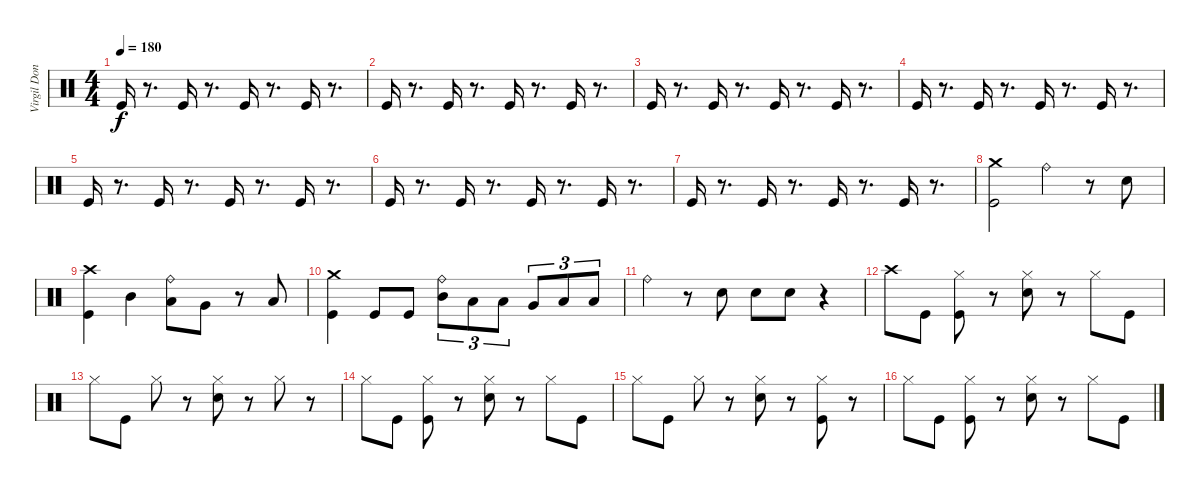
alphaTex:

\track ("Virgil Donati" "Virgil Don") {instrument percussion}
\staff {score}
\articulation defaults
\ts (4 4)
\tempo 180
\clef neutral
\ks c "Kick (hit)".16{dy f}
r.8{d} "Kick (hit)".16 r.8{d} "Kick (hit)".16 r.8{d} "Kick (hit)".16 r.8{d} |
"Kick (hit)".16 r.8{d} "Kick (hit)".16 r.8{d} "Kick (hit)".16 r.8{d} "Kick (hit)".16 r.8{d} |
"Kick (hit)".16 r.8{d} "Kick (hit)".16 r.8{d} "Kick (hit)".16 r.8{d} "Kick (hit)".16 r.8{d} |
"Kick (hit)".16 r.8{d} "Kick (hit)".16 r.8{d} "Kick (hit)".16 r.8{d} "Kick (hit)".16 r.8{d} |
"Kick (hit)".16 r.8{d} "Kick (hit)".16 r.8{d} "Kick (hit)".16 r.8{d} "Kick (hit)".16 r.8{d} |
"Kick (hit)".16 r.8{d} "Kick (hit)".16 r.8{d} "Kick (hit)".16 r.8{d} "Kick (hit)".16 r.8{d} |
"Kick (hit)".16 r.8{d} "Kick (hit)".16 r.8{d} "Kick (hit)".16 r.8{d} "Kick (hit)".16 r.8{d} |
("Crash medium (hit)" "Kick (hit)").2 "Ride (bell)".4 r.8 "Electric Snare (hit)".8 |
("Crash high (hit)" "Kick (hit)").4 "Mid Tom (hit)".4 ("Ride (bell)" "Low Tom (hit)").8 "Very Low Tom (hit)".8 r.8 "Low Floor Tom (hit)".8 |
("Crash medium (hit)" "Kick (hit)").4 "Kick (hit)".8 "Kick (hit)".8 ("Ride (bell)" "Mid Tom (hit)").8{tu (3 2)} "Low Tom (hit)".8{tu (3 2)} "Low Tom (hit)".8{tu (3 2)} "Very Low Tom (hit)".8{tu (3 2)} "Low Floor Tom (hit)".8{tu (3 2)} "Low Floor Tom (hit)".8{tu (3 2)} |
"Ride (bell)".4 r.8 "Electric Snare (hit)".8 "Electric Snare (hit)".8 "Electric Snare (hit)".8 r.4 |
"Crash high (hit)".8 "Kick (hit)".8 ("Hi-Hat (closed)" "Kick (hit)").8 r.8 ("Hi-Hat (closed)" "Electric Snare (hit)").8 r.8 "Hi-Hat (closed)".8 "Kick (hit)".8 |
"Hi-Hat (closed)".8 "Kick (hit)".8 "Hi-Hat (closed)".8 r.8 ("Hi-Hat (closed)" "Electric Snare (hit)").8 r.8 "Hi-Hat (closed)".8 r.8 |
"Hi-Hat (closed)".8 "Kick (hit)".8 ("Hi-Hat (closed)" "Kick (hit)").8 r.8 ("Hi-Hat (closed)" "Electric Snare (hit)").8 r.8 "Hi-Hat (closed)".8 "Kick (hit)".8 |
"Hi-Hat (closed)".8 "Kick (hit)".8 "Hi-Hat (closed)".8 r.8 ("Hi-Hat (closed)" "Electric Snare (hit)").8 r.8 ("Hi-Hat (closed)" "Kick (hit)").8 r.8 |
"Hi-Hat (closed)".8 "Kick (hit)".8 ("Hi-Hat (closed)" "Kick (hit)").8 r.8 ("Hi-Hat (closed)" "Electric Snare (hit)").8 r.8 "Hi-Hat (closed)".8 "Kick (hit)".8
